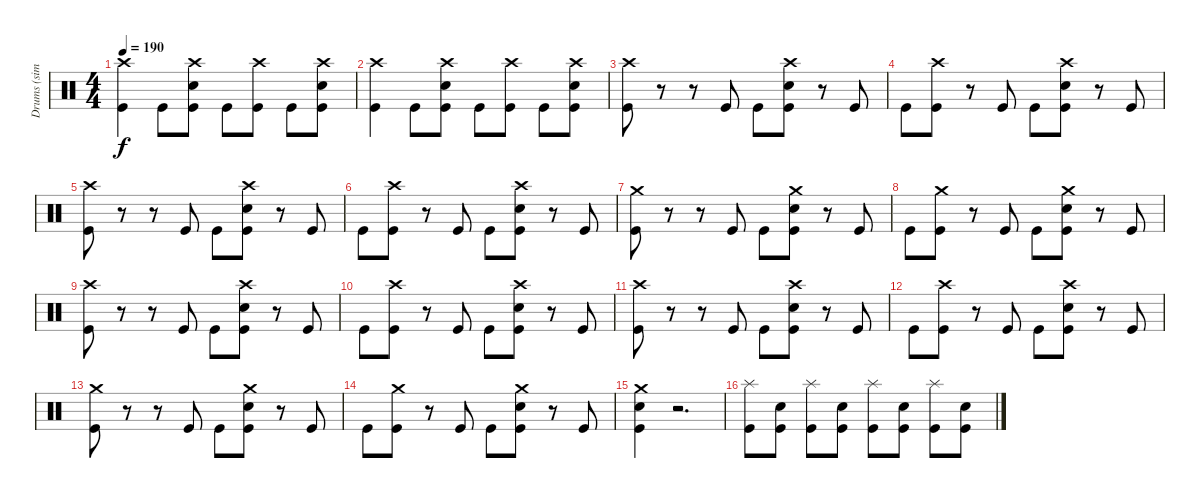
\track ("Drums (simple)" "Drums (sim") {instrument percussion}
\staff {score}
\articulation defaults
\ts (4 4)
\tempo 190
\clef neutral
\ks c
("Crash high (hit)" "Kick (hit)").4{dy f} "Kick (hit)".8 ("Crash high (hit)" "Snare (hit) 2" "Kick (hit)").8 "Kick (hit)".8 ("Crash high (hit)" "Kick (hit)").8 "Kick (hit)".8 ("Crash high (hit)" "Snare (hit) 2" "Kick (hit)").8 |
("Crash high (hit)" "Kick (hit)").4 "Kick (hit)".8 ("Crash high (hit)" "Snare (hit) 2" "Kick (hit)").8 "Kick (hit)".8 ("Crash high (hit)" "Kick (hit)").8 "Kick (hit)".8 ("Crash high (hit)" "Snare (hit) 2" "Kick (hit)").8 |
("Crash high (hit)" "Kick (hit)").8 r.8 r.8 "Kick (hit)".8 "Kick (hit)".8 ("Crash high (hit)" "Snare (hit) 2" "Kick (hit)").8 r.8 "Kick (hit)".8 |
"Kick (hit)".8 ("Crash high (hit)" "Kick (hit)").8 r.8 "Kick (hit)".8 "Kick (hit)".8 ("Crash high (hit)" "Snare (hit) 2" "Kick (hit)").8 r.8 "Kick (hit)".8 |
("Crash high (hit)" "Kick (hit)").8 r.8 r.8 "Kick (hit)".8 "Kick (hit)".8 ("Crash high (hit)" "Snare (hit) 2" "Kick (hit)").8 r.8 "Kick (hit)".8 |
"Kick (hit)".8 ("Crash high (hit)" "Kick (hit)").8 r.8 "Kick (hit)".8 "Kick (hit)".8 ("Crash high (hit)" "Snare (hit) 2" "Kick (hit)").8 r.8 "Kick (hit)".8 |
("Crash medium (hit)" "Kick (hit)").8 r.8 r.8 "Kick (hit)".8 "Kick (hit)".8 ("Crash medium (hit)" "Snare (hit) 2" "Kick (hit)").8 r.8 "Kick (hit)".8 |
"Kick (hit)".8 ("Crash medium (hit)" "Kick (hit)").8 r.8 "Kick (hit)".8 "Kick (hit)".8 ("Crash medium (hit)" "Snare (hit) 2" "Kick (hit)").8 r.8 "Kick (hit)".8 |
("Crash high (hit)" "Kick (hit)").8 r.8 r.8 "Kick (hit)".8 "Kick (hit)".8 ("Crash high (hit)" "Snare (hit) 2" "Kick (hit)").8 r.8 "Kick (hit)".8 |
"Kick (hit)".8 ("Crash high (hit)" "Kick (hit)").8 r.8 "Kick (hit)".8 "Kick (hit)".8 ("Crash high (hit)" "Snare (hit) 2" "Kick (hit)").8 r.8 "Kick (hit)".8 |
("Crash high (hit)" "Kick (hit)").8 r.8 r.8 "Kick (hit)".8 "Kick (hit)".8 ("Crash high (hit)" "Snare (hit) 2" "Kick (hit)").8 r.8 "Kick (hit)".8 |
"Kick (hit)".8 ("Crash high (hit)" "Kick (hit)").8 r.8 "Kick (hit)".8 "Kick (hit)".8 ("Crash high (hit)" "Snare (hit) 2" "Kick (hit)").8 r.8 "Kick (hit)".8 |
("Crash medium (hit)" "Kick (hit)").8 r.8 r.8 "Kick (hit)".8 "Kick (hit)".8 ("Crash medium (hit)" "Snare (hit) 2" "Kick (hit)").8 r.8 "Kick (hit)".8 |
"Kick (hit)".8 ("Crash medium (hit)" "Kick (hit)").8 r.8 "Kick (hit)".8 "Kick (hit)".8 ("Crash medium (hit)" "Snare (hit) 2" "Kick (hit)").8 r.8 "Kick (hit)".8 |
("Crash medium (hit)" "Snare (hit) 2" "Kick (hit)").4 r.2{d} |
("Splash (hit)" "Kick (hit)").8 ("Snare (hit) 2" "Kick (hit)").8 ("Splash (hit)" "Kick (hit)").8 ("Snare (hit) 2" "Kick (hit)").8 ("Splash (hit)" "Kick (hit)").8 ("Snare (hit) 2" "Kick (hit)").8 ("Splash (hit)" "Kick (hit)").8 ("Snare (hit) 2" "Kick (hit)").8
